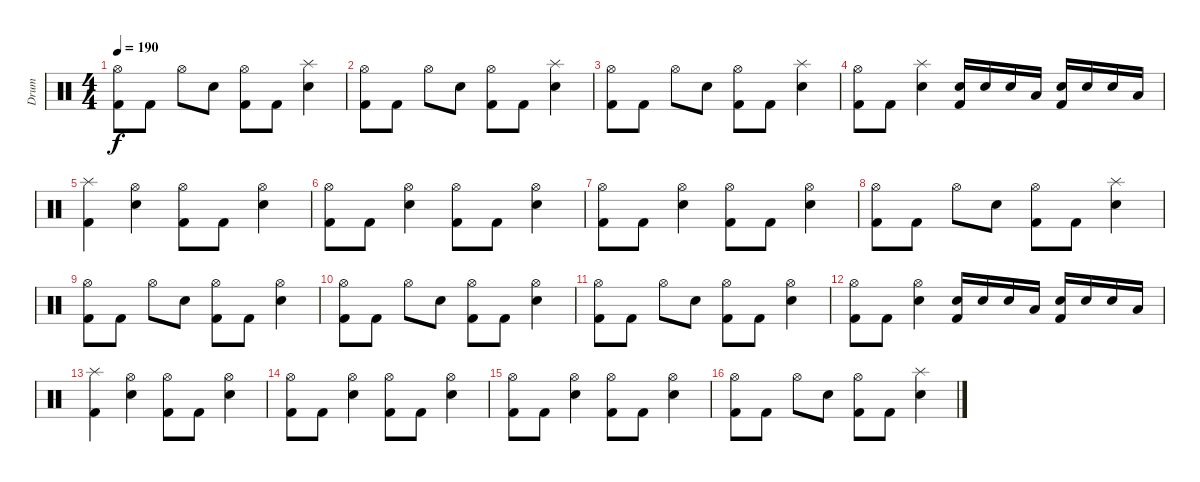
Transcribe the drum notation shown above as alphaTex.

\track ("Drum" "Drum") {instrument percussion}
\staff {score}
\articulation defaults
\ts (4 4)
\tempo 190
\clef neutral
\ks c
("Hi-Hat (open)" "Kick (hit) 2").8{dy f} "Kick (hit) 2".8 "Hi-Hat (open)".8 "Electric Snare (hit)".8 ("Hi-Hat (open)" "Kick (hit) 2").8 "Kick (hit) 2".8 ("Splash (hit)" "Electric Snare (hit)").4 |
("Hi-Hat (open)" "Kick (hit) 2").8 "Kick (hit) 2".8 "Hi-Hat (open)".8 "Electric Snare (hit)".8 ("Hi-Hat (open)" "Kick (hit) 2").8 "Kick (hit) 2".8 ("Splash (hit)" "Electric Snare (hit)").4 |
("Hi-Hat (open)" "Kick (hit) 2").8 "Kick (hit) 2".8 "Hi-Hat (open)".8 "Electric Snare (hit)".8 ("Hi-Hat (open)" "Kick (hit) 2").8 "Kick (hit) 2".8 ("Splash (hit)" "Electric Snare (hit)").4 |
("Hi-Hat (open)" "Kick (hit) 2").8 "Kick (hit) 2".8 ("Splash (hit)" "Electric Snare (hit)").4 ("Electric Snare (hit)" "Kick (hit) 2").16 "Electric Snare (hit)".16 "Electric Snare (hit)".16 "Low Tom (hit)".16 ("Electric Snare (hit)" "Kick (hit) 2").16 "Electric Snare (hit)".16 "Electric Snare (hit)".16 "Low Tom (hit)".16 |
("Splash (hit)" "Kick (hit) 2").4 ("Hi-Hat (open)" "Electric Snare (hit)").4 ("Hi-Hat (open)" "Kick (hit) 2").8 "Kick (hit) 2".8 ("Hi-Hat (open)" "Electric Snare (hit)").4 |
("Hi-Hat (open)" "Kick (hit) 2").8 "Kick (hit) 2".8 ("Hi-Hat (open)" "Electric Snare (hit)").4 ("Hi-Hat (open)" "Kick (hit) 2").8 "Kick (hit) 2".8 ("Hi-Hat (open)" "Electric Snare (hit)").4 |
("Hi-Hat (open)" "Kick (hit) 2").8 "Kick (hit) 2".8 ("Hi-Hat (open)" "Electric Snare (hit)").4 ("Hi-Hat (open)" "Kick (hit) 2").8 "Kick (hit) 2".8 ("Hi-Hat (open)" "Electric Snare (hit)").4 |
("Hi-Hat (open)" "Kick (hit) 2").8 "Kick (hit) 2".8 "Hi-Hat (open)".8 "Electric Snare (hit)".8 ("Hi-Hat (open)" "Kick (hit) 2").8 "Kick (hit) 2".8 ("Splash (hit)" "Electric Snare (hit)").4 |
("Hi-Hat (open)" "Kick (hit) 2").8 "Kick (hit) 2".8 "Hi-Hat (open)".8 "Electric Snare (hit)".8 ("Hi-Hat (open)" "Kick (hit) 2").8 "Kick (hit) 2".8 ("Hi-Hat (open)" "Electric Snare (hit)").4 |
("Hi-Hat (open)" "Kick (hit) 2").8 "Kick (hit) 2".8 "Hi-Hat (open)".8 "Electric Snare (hit)".8 ("Hi-Hat (open)" "Kick (hit) 2").8 "Kick (hit) 2".8 ("Hi-Hat (open)" "Electric Snare (hit)").4 |
("Hi-Hat (open)" "Kick (hit) 2").8 "Kick (hit) 2".8 "Hi-Hat (open)".8 "Electric Snare (hit)".8 ("Hi-Hat (open)" "Kick (hit) 2").8 "Kick (hit) 2".8 ("Hi-Hat (open)" "Electric Snare (hit)").4 |
("Hi-Hat (open)" "Kick (hit) 2").8 "Kick (hit) 2".8 ("Hi-Hat (open)" "Electric Snare (hit)").4 ("Electric Snare (hit)" "Kick (hit) 2").16 "Electric Snare (hit)".16 "Electric Snare (hit)".16 "Low Tom (hit)".16 ("Electric Snare (hit)" "Kick (hit) 2").16 "Electric Snare (hit)".16 "Electric Snare (hit)".16 "Low Tom (hit)".16 |
("Splash (hit)" "Kick (hit) 2").4 ("Hi-Hat (open)" "Electric Snare (hit)").4 ("Hi-Hat (open)" "Kick (hit) 2").8 "Kick (hit) 2".8 ("Hi-Hat (open)" "Electric Snare (hit)").4 |
("Hi-Hat (open)" "Kick (hit) 2").8 "Kick (hit) 2".8 ("Hi-Hat (open)" "Electric Snare (hit)").4 ("Hi-Hat (open)" "Kick (hit) 2").8 "Kick (hit) 2".8 ("Hi-Hat (open)" "Electric Snare (hit)").4 |
("Hi-Hat (open)" "Kick (hit) 2").8 "Kick (hit) 2".8 ("Hi-Hat (open)" "Electric Snare (hit)").4 ("Hi-Hat (open)" "Kick (hit) 2").8 "Kick (hit) 2".8 ("Hi-Hat (open)" "Electric Snare (hit)").4 |
("Hi-Hat (open)" "Kick (hit) 2").8 "Kick (hit) 2".8 "Hi-Hat (open)".8 "Electric Snare (hit)".8 ("Hi-Hat (open)" "Kick (hit) 2").8 "Kick (hit) 2".8 ("Splash (hit)" "Electric Snare (hit)").4
